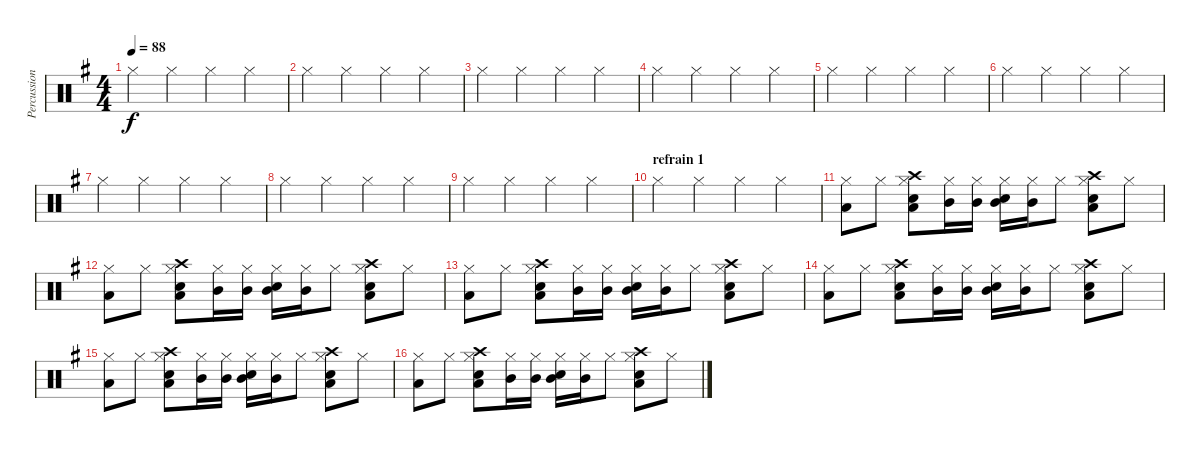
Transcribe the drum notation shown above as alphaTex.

\track ("Percussions" "Percussion") {instrument percussion}
\staff {score}
\articulation defaults
\ts (4 4)
\tempo 88
\clef neutral
\ks g "Hi-Hat (closed)".4{dy f} "Hi-Hat (closed)".4 "Hi-Hat (closed)".4 "Hi-Hat (closed)".4
|
"Hi-Hat (closed)".4 "Hi-Hat (closed)".4 "Hi-Hat (closed)".4 "Hi-Hat (closed)".4 |
"Hi-Hat (closed)".4 "Hi-Hat (closed)".4 "Hi-Hat (closed)".4 "Hi-Hat (closed)".4 |
"Hi-Hat (closed)".4 "Hi-Hat (closed)".4 "Hi-Hat (closed)".4 "Hi-Hat (closed)".4 |
"Hi-Hat (closed)".4 "Hi-Hat (closed)".4 "Hi-Hat (closed)".4 "Hi-Hat (closed)".4 |
"Hi-Hat (closed)".4 "Hi-Hat (closed)".4 "Hi-Hat (closed)".4 "Hi-Hat (closed)".4 |
"Hi-Hat (closed)".4 "Hi-Hat (closed)".4 "Hi-Hat (closed)".4 "Hi-Hat (closed)".4 |
"Hi-Hat (closed)".4 "Hi-Hat (closed)".4 "Hi-Hat (closed)".4 "Hi-Hat (closed)".4 |
"Hi-Hat (closed)".4 "Hi-Hat (closed)".4 "Hi-Hat (closed)".4 "Hi-Hat (closed)".4 |
\section ("" "refrain 1")
"Hi-Hat (closed)".4 "Hi-Hat (closed)".4 "Hi-Hat (closed)".4 "Hi-Hat (closed)".4 |
("Hi-Hat (closed)" "Low Floor Tom (hit)").8 "Hi-Hat (closed)".8 ("Snare (hit) 2" "Low Floor Tom (hit)" "Hi-Hat (closed)" "Crash high (hit)").8 ("Mid Tom (hit)" "Hi-Hat (closed)").16 ("Mid Tom (hit)" "Hi-Hat (closed)").16 ("Snare (hit) 2" "Mid Tom (hit)" "Hi-Hat (closed)").16 ("Mid Tom (hit)" "Hi-Hat (closed)").16 "Hi-Hat (closed)".8 ("Snare (hit) 2" "Low Floor Tom (hit)" "Hi-Hat (closed)" "Crash high (hit)").8 "Hi-Hat (closed)".8 |
("Hi-Hat (closed)" "Low Floor Tom (hit)").8 "Hi-Hat (closed)".8 ("Snare (hit) 2" "Low Floor Tom (hit)" "Hi-Hat (closed)" "Crash high (hit)").8 ("Mid Tom (hit)" "Hi-Hat (closed)").16 ("Mid Tom (hit)" "Hi-Hat (closed)").16 ("Snare (hit) 2" "Mid Tom (hit)" "Hi-Hat (closed)").16 ("Mid Tom (hit)" "Hi-Hat (closed)").16 "Hi-Hat (closed)".8 ("Snare (hit) 2" "Low Floor Tom (hit)" "Hi-Hat (closed)" "Crash high (hit)").8 "Hi-Hat (closed)".8 |
("Hi-Hat (closed)" "Low Floor Tom (hit)").8 "Hi-Hat (closed)".8 ("Snare (hit) 2" "Low Floor Tom (hit)" "Hi-Hat (closed)" "Crash high (hit)").8 ("Mid Tom (hit)" "Hi-Hat (closed)").16 ("Mid Tom (hit)" "Hi-Hat (closed)").16 ("Snare (hit) 2" "Mid Tom (hit)" "Hi-Hat (closed)").16 ("Mid Tom (hit)" "Hi-Hat (closed)").16 "Hi-Hat (closed)".8 ("Snare (hit) 2" "Low Floor Tom (hit)" "Hi-Hat (closed)" "Crash high (hit)").8 "Hi-Hat (closed)".8 |
("Hi-Hat (closed)" "Low Floor Tom (hit)").8 "Hi-Hat (closed)".8 ("Snare (hit) 2" "Low Floor Tom (hit)" "Hi-Hat (closed)" "Crash high (hit)").8 ("Mid Tom (hit)" "Hi-Hat (closed)").16 ("Mid Tom (hit)" "Hi-Hat (closed)").16 ("Snare (hit) 2" "Mid Tom (hit)" "Hi-Hat (closed)").16 ("Mid Tom (hit)" "Hi-Hat (closed)").16 "Hi-Hat (closed)".8 ("Snare (hit) 2" "Low Floor Tom (hit)" "Hi-Hat (closed)" "Crash high (hit)").8 "Hi-Hat (closed)".8 |
("Hi-Hat (closed)" "Low Floor Tom (hit)").8 "Hi-Hat (closed)".8 ("Snare (hit) 2" "Low Floor Tom (hit)" "Hi-Hat (closed)" "Crash high (hit)").8 ("Mid Tom (hit)" "Hi-Hat (closed)").16 ("Mid Tom (hit)" "Hi-Hat (closed)").16 ("Snare (hit) 2" "Mid Tom (hit)" "Hi-Hat (closed)").16 ("Mid Tom (hit)" "Hi-Hat (closed)").16 "Hi-Hat (closed)".8 ("Snare (hit) 2" "Low Floor Tom (hit)" "Hi-Hat (closed)" "Crash high (hit)").8 "Hi-Hat (closed)".8 |
("Hi-Hat (closed)" "Low Floor Tom (hit)").8 "Hi-Hat (closed)".8 ("Snare (hit) 2" "Low Floor Tom (hit)" "Hi-Hat (closed)" "Crash high (hit)").8 ("Mid Tom (hit)" "Hi-Hat (closed)").16 ("Mid Tom (hit)" "Hi-Hat (closed)").16 ("Snare (hit) 2" "Mid Tom (hit)" "Hi-Hat (closed)").16 ("Mid Tom (hit)" "Hi-Hat (closed)").16 "Hi-Hat (closed)".8 ("Snare (hit) 2" "Low Floor Tom (hit)" "Hi-Hat (closed)" "Crash high (hit)").8 "Hi-Hat (closed)".8
